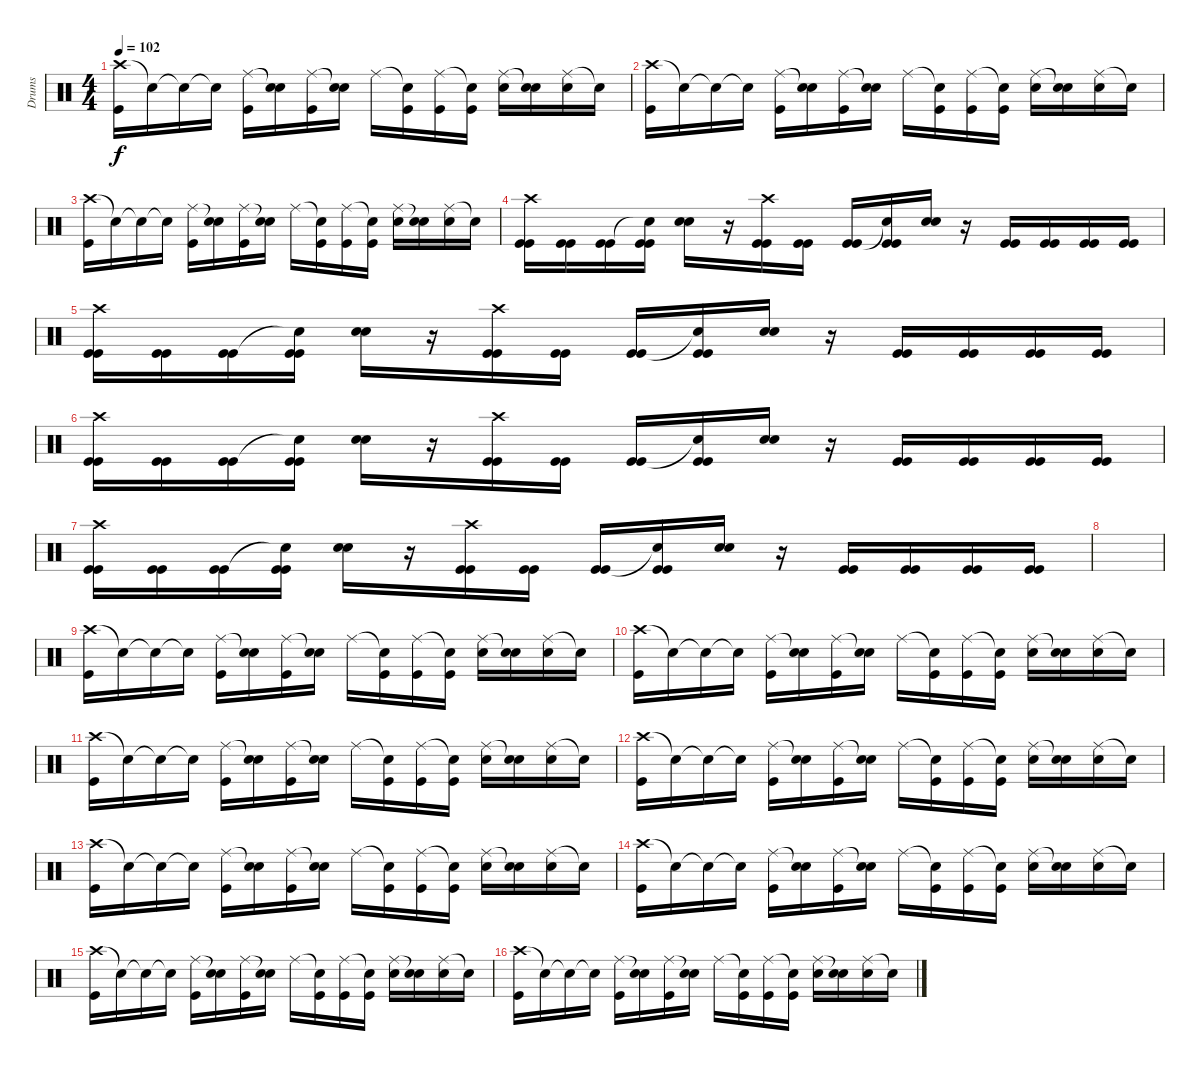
\track ("Drums" "Drums") {instrument percussion}
\staff {score}
\articulation defaults
\ts (4 4)
\tempo 102
\clef neutral
\ks c
("Crash high (hit)" "Kick (hit)").16{dy f} "Snare (hit)"{t}.16 "Snare (hit)"{t}.16 "Snare (hit)"{t}.16 ("Ride (middle)" "Kick (hit)").16 ("Snare (hit)"{t} "Snare (hit) 2").16 ("Ride (middle)" "Kick (hit)").16 ("Snare (hit)"{t} "Snare (hit) 2").16 "Ride (middle)".16 ("Snare (hit)"{t} "Kick (hit)").16 ("Ride (middle)" "Kick (hit)").16 ("Snare (hit)"{t} "Kick (hit)").16 ("Ride (middle)" "Snare (hit) 2").16 ("Snare (hit)"{t} "Snare (hit) 2").16 ("Ride (middle)" "Snare (hit) 2").16 "Snare (hit)"{t}.16 |
("Crash high (hit)" "Kick (hit)").16 "Snare (hit)"{t}.16 "Snare (hit)"{t}.16 "Snare (hit)"{t}.16 ("Ride (middle)" "Kick (hit)").16 ("Snare (hit)"{t} "Snare (hit) 2").16 ("Ride (middle)" "Kick (hit)").16 ("Snare (hit)"{t} "Snare (hit) 2").16 "Ride (middle)".16 ("Snare (hit)"{t} "Kick (hit)").16 ("Ride (middle)" "Kick (hit)").16 ("Snare (hit)"{t} "Kick (hit)").16 ("Ride (middle)" "Snare (hit) 2").16 ("Snare (hit)"{t} "Snare (hit) 2").16 ("Ride (middle)" "Snare (hit) 2").16 "Snare (hit)"{t}.16 |
("Crash high (hit)" "Kick (hit)").16 "Snare (hit)"{t}.16 "Snare (hit)"{t}.16 "Snare (hit)"{t}.16 ("Ride (middle)" "Kick (hit)").16 ("Snare (hit)"{t} "Snare (hit) 2").16 ("Ride (middle)" "Kick (hit)").16 ("Snare (hit)"{t} "Snare (hit) 2").16 "Ride (middle)".16 ("Snare (hit)"{t} "Kick (hit)").16 ("Ride (middle)" "Kick (hit)").16 ("Snare (hit)"{t} "Kick (hit)").16 ("Ride (middle)" "Snare (hit) 2").16 ("Snare (hit)"{t} "Snare (hit) 2").16 ("Ride (middle)" "Snare (hit) 2").16 "Snare (hit)"{t}.16 |
("Crash high (hit)" "Kick (hit)" "Kick (hit)").16 ("Kick (hit)" "Kick (hit)").16 ("Kick (hit)" "Kick (hit)").16 ("Snare (hit)"{t} "Kick (hit)" "Kick (hit)").16 ("Snare (hit) 2" "Snare (hit) 2").16 r.16 ("Crash high (hit)" "Kick (hit)" "Kick (hit)").16 ("Kick (hit)" "Kick (hit)").16 ("Kick (hit)" "Kick (hit)").16 ("Snare (hit)"{t} "Kick (hit)" "Kick (hit)").16 ("Snare (hit) 2" "Snare (hit) 2").16 r.16 ("Kick (hit)" "Kick (hit)").16 ("Kick (hit)" "Kick (hit)").16 ("Kick (hit)" "Kick (hit)").16 ("Kick (hit)" "Kick (hit)").16 |
("Crash high (hit)" "Kick (hit)" "Kick (hit)").16 ("Kick (hit)" "Kick (hit)").16 ("Kick (hit)" "Kick (hit)").16 ("Snare (hit)"{t} "Kick (hit)" "Kick (hit)").16 ("Snare (hit) 2" "Snare (hit) 2").16 r.16 ("Crash high (hit)" "Kick (hit)" "Kick (hit)").16 ("Kick (hit)" "Kick (hit)").16 ("Kick (hit)" "Kick (hit)").16 ("Snare (hit)"{t} "Kick (hit)" "Kick (hit)").16 ("Snare (hit) 2" "Snare (hit) 2").16 r.16 ("Kick (hit)" "Kick (hit)").16 ("Kick (hit)" "Kick (hit)").16 ("Kick (hit)" "Kick (hit)").16 ("Kick (hit)" "Kick (hit)").16 |
("Crash high (hit)" "Kick (hit)" "Kick (hit)").16 ("Kick (hit)" "Kick (hit)").16 ("Kick (hit)" "Kick (hit)").16 ("Snare (hit)"{t} "Kick (hit)" "Kick (hit)").16 ("Snare (hit) 2" "Snare (hit) 2").16 r.16 ("Crash high (hit)" "Kick (hit)" "Kick (hit)").16 ("Kick (hit)" "Kick (hit)").16 ("Kick (hit)" "Kick (hit)").16 ("Snare (hit)"{t} "Kick (hit)" "Kick (hit)").16 ("Snare (hit) 2" "Snare (hit) 2").16 r.16 ("Kick (hit)" "Kick (hit)").16 ("Kick (hit)" "Kick (hit)").16 ("Kick (hit)" "Kick (hit)").16 ("Kick (hit)" "Kick (hit)").16 |
("Crash high (hit)" "Kick (hit)" "Kick (hit)").16 ("Kick (hit)" "Kick (hit)").16 ("Kick (hit)" "Kick (hit)").16 ("Snare (hit)"{t} "Kick (hit)" "Kick (hit)").16 ("Snare (hit) 2" "Snare (hit) 2").16 r.16 ("Crash high (hit)" "Kick (hit)" "Kick (hit)").16 ("Kick (hit)" "Kick (hit)").16 ("Kick (hit)" "Kick (hit)").16 ("Snare (hit)"{t} "Kick (hit)" "Kick (hit)").16 ("Snare (hit) 2" "Snare (hit) 2").16 r.16 ("Kick (hit)" "Kick (hit)").16 ("Kick (hit)" "Kick (hit)").16 ("Kick (hit)" "Kick (hit)").16 ("Kick (hit)" "Kick (hit)").16 |
|
("Crash high (hit)" "Kick (hit)").16 "Snare (hit)"{t}.16 "Snare (hit)"{t}.16 "Snare (hit)"{t}.16 ("Ride (middle)" "Kick (hit)").16 ("Snare (hit)"{t} "Snare (hit) 2").16 ("Ride (middle)" "Kick (hit)").16 ("Snare (hit)"{t} "Snare (hit) 2").16 "Ride (middle)".16 ("Snare (hit)"{t} "Kick (hit)").16 ("Ride (middle)" "Kick (hit)").16 ("Snare (hit)"{t} "Kick (hit)").16 ("Ride (middle)" "Snare (hit) 2").16 ("Snare (hit)"{t} "Snare (hit) 2").16 ("Ride (middle)" "Snare (hit) 2").16 "Snare (hit)"{t}.16 |
("Crash high (hit)" "Kick (hit)").16 "Snare (hit)"{t}.16 "Snare (hit)"{t}.16 "Snare (hit)"{t}.16 ("Ride (middle)" "Kick (hit)").16 ("Snare (hit)"{t} "Snare (hit) 2").16 ("Ride (middle)" "Kick (hit)").16 ("Snare (hit)"{t} "Snare (hit) 2").16 "Ride (middle)".16 ("Snare (hit)"{t} "Kick (hit)").16 ("Ride (middle)" "Kick (hit)").16 ("Snare (hit)"{t} "Kick (hit)").16 ("Ride (middle)" "Snare (hit) 2").16 ("Snare (hit)"{t} "Snare (hit) 2").16 ("Ride (middle)" "Snare (hit) 2").16 "Snare (hit)"{t}.16 |
("Crash high (hit)" "Kick (hit)").16 "Snare (hit)"{t}.16 "Snare (hit)"{t}.16 "Snare (hit)"{t}.16 ("Ride (middle)" "Kick (hit)").16 ("Snare (hit)"{t} "Snare (hit) 2").16 ("Ride (middle)" "Kick (hit)").16 ("Snare (hit)"{t} "Snare (hit) 2").16 "Ride (middle)".16 ("Snare (hit)"{t} "Kick (hit)").16 ("Ride (middle)" "Kick (hit)").16 ("Snare (hit)"{t} "Kick (hit)").16 ("Ride (middle)" "Snare (hit) 2").16 ("Snare (hit)"{t} "Snare (hit) 2").16 ("Ride (middle)" "Snare (hit) 2").16 "Snare (hit)"{t}.16 |
("Crash high (hit)" "Kick (hit)").16 "Snare (hit)"{t}.16 "Snare (hit)"{t}.16 "Snare (hit)"{t}.16 ("Ride (middle)" "Kick (hit)").16 ("Snare (hit)"{t} "Snare (hit) 2").16 ("Ride (middle)" "Kick (hit)").16 ("Snare (hit)"{t} "Snare (hit) 2").16 "Ride (middle)".16 ("Snare (hit)"{t} "Kick (hit)").16 ("Ride (middle)" "Kick (hit)").16 ("Snare (hit)"{t} "Kick (hit)").16 ("Ride (middle)" "Snare (hit) 2").16 ("Snare (hit)"{t} "Snare (hit) 2").16 ("Ride (middle)" "Snare (hit) 2").16 "Snare (hit)"{t}.16 |
("Crash high (hit)" "Kick (hit)").16 "Snare (hit)"{t}.16 "Snare (hit)"{t}.16 "Snare (hit)"{t}.16 ("Ride (middle)" "Kick (hit)").16 ("Snare (hit)"{t} "Snare (hit) 2").16 ("Ride (middle)" "Kick (hit)").16 ("Snare (hit)"{t} "Snare (hit) 2").16 "Ride (middle)".16 ("Snare (hit)"{t} "Kick (hit)").16 ("Ride (middle)" "Kick (hit)").16 ("Snare (hit)"{t} "Kick (hit)").16 ("Ride (middle)" "Snare (hit) 2").16 ("Snare (hit)"{t} "Snare (hit) 2").16 ("Ride (middle)" "Snare (hit) 2").16 "Snare (hit)"{t}.16 |
("Crash high (hit)" "Kick (hit)").16 "Snare (hit)"{t}.16 "Snare (hit)"{t}.16 "Snare (hit)"{t}.16 ("Ride (middle)" "Kick (hit)").16 ("Snare (hit)"{t} "Snare (hit) 2").16 ("Ride (middle)" "Kick (hit)").16 ("Snare (hit)"{t} "Snare (hit) 2").16 "Ride (middle)".16 ("Snare (hit)"{t} "Kick (hit)").16 ("Ride (middle)" "Kick (hit)").16 ("Snare (hit)"{t} "Kick (hit)").16 ("Ride (middle)" "Snare (hit) 2").16 ("Snare (hit)"{t} "Snare (hit) 2").16 ("Ride (middle)" "Snare (hit) 2").16 "Snare (hit)"{t}.16 |
("Crash high (hit)" "Kick (hit)").16 "Snare (hit)"{t}.16 "Snare (hit)"{t}.16 "Snare (hit)"{t}.16 ("Ride (middle)" "Kick (hit)").16 ("Snare (hit)"{t} "Snare (hit) 2").16 ("Ride (middle)" "Kick (hit)").16 ("Snare (hit)"{t} "Snare (hit) 2").16 "Ride (middle)".16 ("Snare (hit)"{t} "Kick (hit)").16 ("Ride (middle)" "Kick (hit)").16 ("Snare (hit)"{t} "Kick (hit)").16 ("Ride (middle)" "Snare (hit) 2").16 ("Snare (hit)"{t} "Snare (hit) 2").16 ("Ride (middle)" "Snare (hit) 2").16 "Snare (hit)"{t}.16 |
("Crash high (hit)" "Kick (hit)").16 "Snare (hit)"{t}.16 "Snare (hit)"{t}.16 "Snare (hit)"{t}.16 ("Ride (middle)" "Kick (hit)").16 ("Snare (hit)"{t} "Snare (hit) 2").16 ("Ride (middle)" "Kick (hit)").16 ("Snare (hit)"{t} "Snare (hit) 2").16 "Ride (middle)".16 ("Snare (hit)"{t} "Kick (hit)").16 ("Ride (middle)" "Kick (hit)").16 ("Snare (hit)"{t} "Kick (hit)").16 ("Ride (middle)" "Snare (hit) 2").16 ("Snare (hit)"{t} "Snare (hit) 2").16 ("Ride (middle)" "Snare (hit) 2").16 "Snare (hit)"{t}.16
